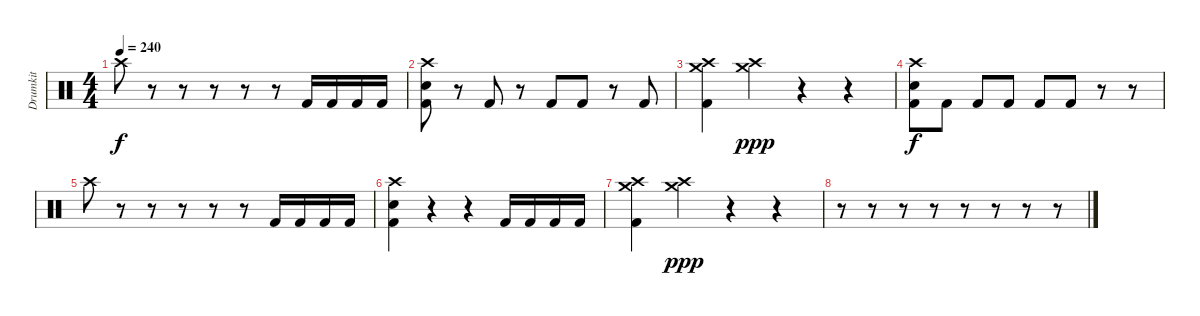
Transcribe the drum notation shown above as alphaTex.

\track ("Drumkit" "Drumkit") {instrument percussion}
\staff {score}
\articulation defaults
\ts (4 4)
\tempo 240
\clef neutral
\ks c "Crash high (hit)".8{dy f}
r.8 r.8 r.8 r.8 r.8 "Kick (hit) 2".16 "Kick (hit) 2".16 "Kick (hit) 2".16 "Kick (hit) 2".16 |
("Crash high (hit)" "Electric Snare (hit)" "Kick (hit) 2").8 r.8 "Kick (hit) 2".8 r.8 "Kick (hit) 2".8 "Kick (hit) 2".8 r.8 "Kick (hit) 2".8 |
("Crash medium (hit)" "Crash high (hit)" "Kick (hit) 2").4 ("Crash medium (hit)" "Crash high (hit)").4{dy ppp} r.4 r.4 |
("Crash high (hit)" "Electric Snare (hit)" "Kick (hit) 2").8{dy f} "Kick (hit) 2".8 "Kick (hit) 2".8 "Kick (hit) 2".8 "Kick (hit) 2".8 "Kick (hit) 2".8 r.8 r.8 |
"Crash high (hit)".8 r.8 r.8 r.8 r.8 r.8 "Kick (hit) 2".16 "Kick (hit) 2".16 "Kick (hit) 2".16 "Kick (hit) 2".16 |
("Crash high (hit)" "Electric Snare (hit)" "Kick (hit) 2").4 r.4 r.4 "Kick (hit) 2".16 "Kick (hit) 2".16 "Kick (hit) 2".16 "Kick (hit) 2".16 |
("Crash medium (hit)" "Crash high (hit)" "Kick (hit) 2").4 ("Crash medium (hit)" "Crash high (hit)").4{dy ppp} r.4 r.4 |
r.8 r.8 r.8 r.8 r.8 r.8 r.8 r.8
